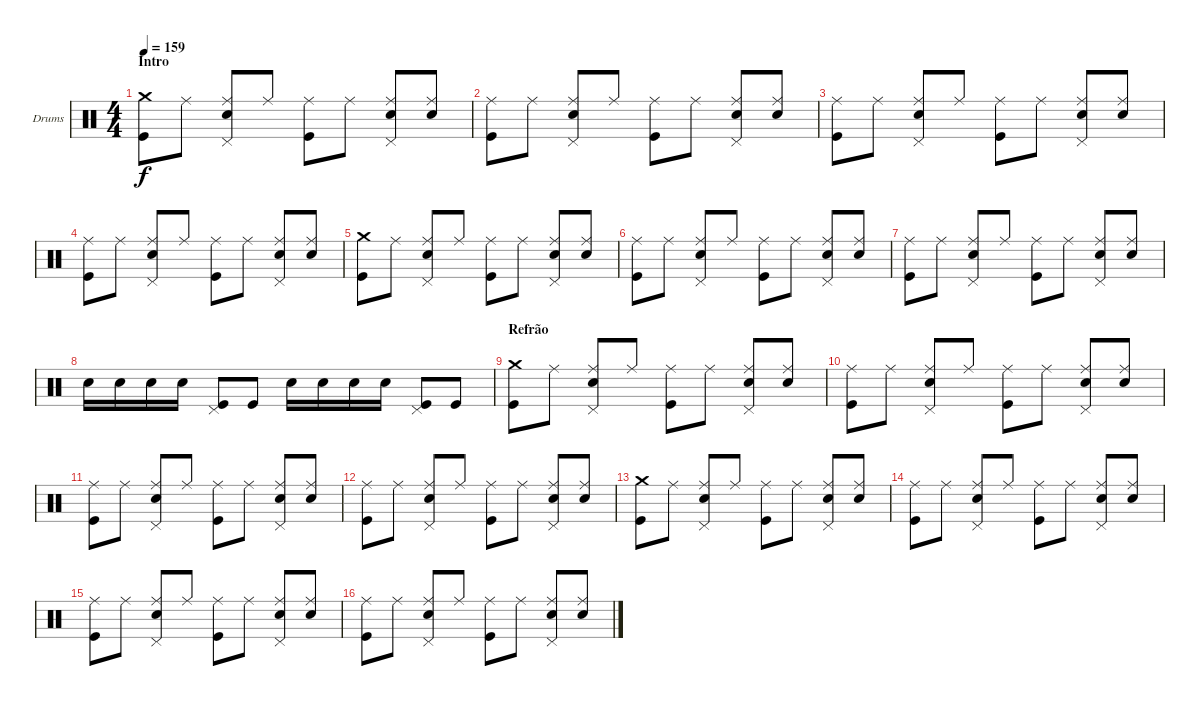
\bracketExtendMode groupsimilarinstruments
\firstSystemTrackNameOrientation horizontal
\otherSystemsTrackNameOrientation horizontal
\track ("Drumkit" "Drums") {instrument percussion}
\staff {score}
\articulation defaults
\ts (4 4)
\section ("" "Intro")
\tempo 159
\clef neutral
\scale
0.474178
\ks c
("Kick (hit)" "Crash medium (hit)").8{dy f} "Ride (middle)".8 ("Ride (middle)" "Snare (hit) 2" "Pedal Hi-Hat (hit)").8 "Ride (middle)".8 ("Ride (middle)" "Kick (hit)").8 "Ride (middle)".8 ("Ride (middle)" "Snare (hit) 2" "Pedal Hi-Hat (hit)").8 ("Ride (middle)" "Snare (hit) 2").8 |
\scale
0.262911 ("Ride (middle)" "Kick (hit)").8 "Ride (middle)".8 ("Ride (middle)" "Snare (hit) 2" "Pedal Hi-Hat (hit)").8 "Ride (middle)".8 ("Ride (middle)" "Kick (hit)").8 "Ride (middle)".8 ("Ride (middle)" "Snare (hit) 2" "Pedal Hi-Hat (hit)").8 ("Ride (middle)" "Snare (hit) 2").8 |
\scale
0.262911 ("Ride (middle)" "Kick (hit)").8 "Ride (middle)".8 ("Ride (middle)" "Snare (hit) 2" "Pedal Hi-Hat (hit)").8 "Ride (middle)".8 ("Ride (middle)" "Kick (hit)").8 "Ride (middle)".8 ("Ride (middle)" "Snare (hit) 2" "Pedal Hi-Hat (hit)").8 ("Ride (middle)" "Snare (hit) 2").8 |
\scale
0.333333 ("Ride (middle)" "Kick (hit)").8 "Ride (middle)".8 ("Ride (middle)" "Snare (hit) 2" "Pedal Hi-Hat (hit)").8 "Ride (middle)".8 ("Ride (middle)" "Kick (hit)").8 "Ride (middle)".8 ("Ride (middle)" "Snare (hit) 2" "Pedal Hi-Hat (hit)").8 ("Ride (middle)" "Snare (hit) 2").8 |
\scale
0.333333 ("Kick (hit)" "Crash medium (hit)").8 "Ride (middle)".8 ("Ride (middle)" "Snare (hit) 2" "Pedal Hi-Hat (hit)").8 "Ride (middle)".8 ("Ride (middle)" "Kick (hit)").8 "Ride (middle)".8 ("Ride (middle)" "Snare (hit) 2" "Pedal Hi-Hat (hit)").8 ("Ride (middle)" "Snare (hit) 2").8 |
\scale
0.333333 ("Ride (middle)" "Kick (hit)").8 "Ride (middle)".8 ("Ride (middle)" "Snare (hit) 2" "Pedal Hi-Hat (hit)").8 "Ride (middle)".8 ("Ride (middle)" "Kick (hit)").8 "Ride (middle)".8 ("Ride (middle)" "Snare (hit) 2" "Pedal Hi-Hat (hit)").8 ("Ride (middle)" "Snare (hit) 2").8 |
\scale
0.333333 ("Ride (middle)" "Kick (hit)").8 "Ride (middle)".8 ("Ride (middle)" "Snare (hit) 2" "Pedal Hi-Hat (hit)").8 "Ride (middle)".8 ("Ride (middle)" "Kick (hit)").8 "Ride (middle)".8 ("Ride (middle)" "Snare (hit) 2" "Pedal Hi-Hat (hit)").8 ("Ride (middle)" "Snare (hit) 2").8 |
\scale
0.333333 "Snare (hit) 2".16 "Snare (hit) 2".16 "Snare (hit) 2".16 "Snare (hit) 2".16 ("Kick (hit)" "Pedal Hi-Hat (hit)").8 "Kick (hit)".8 "Snare (hit) 2".16 "Snare (hit) 2".16 "Snare (hit) 2".16 "Snare (hit) 2".16 ("Kick (hit)" "Pedal Hi-Hat (hit)").8 "Kick (hit)".8 |
\section ("" "Refrão")
\scale
0.333333 ("Kick (hit)" "Crash medium (hit)").8 "Ride (middle)".8 ("Ride (middle)" "Snare (hit) 2" "Pedal Hi-Hat (hit)").8 "Ride (middle)".8 ("Ride (middle)" "Kick (hit)").8 "Ride (middle)".8 ("Ride (middle)" "Snare (hit) 2" "Pedal Hi-Hat (hit)").8 ("Ride (middle)" "Snare (hit) 2").8 |
\scale
0.333333 ("Ride (middle)" "Kick (hit)").8 "Ride (middle)".8 ("Ride (middle)" "Snare (hit) 2" "Pedal Hi-Hat (hit)").8 "Ride (middle)".8 ("Ride (middle)" "Kick (hit)").8 "Ride (middle)".8 ("Ride (middle)" "Snare (hit) 2" "Pedal Hi-Hat (hit)").8 ("Ride (middle)" "Snare (hit) 2").8 |
\scale
0.333333 ("Ride (middle)" "Kick (hit)").8 "Ride (middle)".8 ("Ride (middle)" "Snare (hit) 2" "Pedal Hi-Hat (hit)").8 "Ride (middle)".8 ("Ride (middle)" "Kick (hit)").8 "Ride (middle)".8 ("Ride (middle)" "Snare (hit) 2" "Pedal Hi-Hat (hit)").8 ("Ride (middle)" "Snare (hit) 2").8 |
\scale
0.333333 ("Ride (middle)" "Kick (hit)").8 "Ride (middle)".8 ("Ride (middle)" "Snare (hit) 2" "Pedal Hi-Hat (hit)").8 "Ride (middle)".8 ("Ride (middle)" "Kick (hit)").8 "Ride (middle)".8 ("Ride (middle)" "Snare (hit) 2" "Pedal Hi-Hat (hit)").8 ("Ride (middle)" "Snare (hit) 2").8 |
\scale
0.333333 ("Kick (hit)" "Crash medium (hit)").8 "Ride (middle)".8 ("Ride (middle)" "Snare (hit) 2" "Pedal Hi-Hat (hit)").8 "Ride (middle)".8 ("Ride (middle)" "Kick (hit)").8 "Ride (middle)".8 ("Ride (middle)" "Snare (hit) 2" "Pedal Hi-Hat (hit)").8 ("Ride (middle)" "Snare (hit) 2").8 |
\scale
0.333333 ("Ride (middle)" "Kick (hit)").8 "Ride (middle)".8 ("Ride (middle)" "Snare (hit) 2" "Pedal Hi-Hat (hit)").8 "Ride (middle)".8 ("Ride (middle)" "Kick (hit)").8 "Ride (middle)".8 ("Ride (middle)" "Snare (hit) 2" "Pedal Hi-Hat (hit)").8 ("Ride (middle)" "Snare (hit) 2").8 |
\scale
0.333333 ("Ride (middle)" "Kick (hit)").8 "Ride (middle)".8 ("Ride (middle)" "Snare (hit) 2" "Pedal Hi-Hat (hit)").8 "Ride (middle)".8 ("Ride (middle)" "Kick (hit)").8 "Ride (middle)".8 ("Ride (middle)" "Snare (hit) 2" "Pedal Hi-Hat (hit)").8 ("Ride (middle)" "Snare (hit) 2").8 |
\scale
0.333333 ("Ride (middle)" "Kick (hit)").8 "Ride (middle)".8 ("Ride (middle)" "Snare (hit) 2" "Pedal Hi-Hat (hit)").8 "Ride (middle)".8 ("Ride (middle)" "Kick (hit)").8 "Ride (middle)".8 ("Ride (middle)" "Snare (hit) 2" "Pedal Hi-Hat (hit)").8 ("Ride (middle)" "Snare (hit) 2").8
